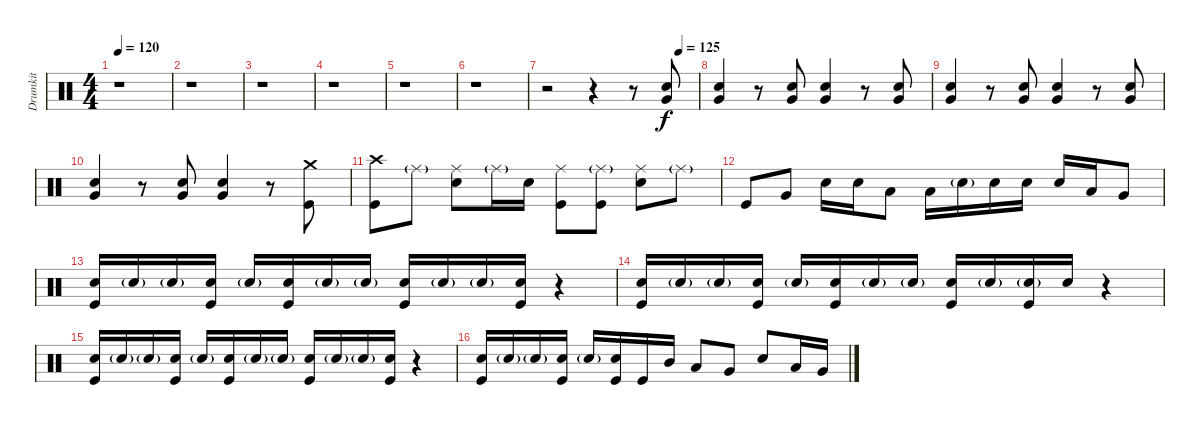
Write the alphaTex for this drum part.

\track ("Drumkit" "Drumkit") {instrument percussion}
\staff {score}
\articulation defaults
\ts (4 4)
\tempo 120
\clef neutral
\ks c
r.1{dy f} |
r.1 |
r.1 |
r.1 |
r.1 |
r.1 |
\tempo (125 0.875)
r.2 r.4 r.8 ("Snare (hit) 2" "Very Low Tom (hit)").8 |
("Very Low Tom (hit)" "Snare (hit) 2").4 r.8 ("Snare (hit) 2" "Very Low Tom (hit)").8 ("Very Low Tom (hit)" "Snare (hit) 2").4 r.8 ("Snare (hit) 2" "Very Low Tom (hit)").8 |
("Very Low Tom (hit)" "Snare (hit) 2").4 r.8 ("Snare (hit) 2" "Very Low Tom (hit)").8 ("Very Low Tom (hit)" "Snare (hit) 2").4 r.8 ("Snare (hit) 2" "Very Low Tom (hit)").8 |
("Very Low Tom (hit)" "Snare (hit) 2").4 r.8 ("Snare (hit) 2" "Very Low Tom (hit)").8 ("Very Low Tom (hit)" "Snare (hit) 2").4 r.8 ("Kick (hit)" "Crash medium (hit)").8 |
("Crash high (hit)" "Kick (hit)").8 "Ride (middle)"{g}.8 ("Ride (middle)" "Snare (hit) 2").8 "Ride (middle)"{g}.16 "Snare (hit) 2".16 ("Ride (middle)" "Kick (hit)").8 ("Ride (middle)"{g} "Kick (hit)").8 ("Ride (middle)" "Snare (hit) 2").8 "Ride (middle)"{g}.8 |
"Kick (hit)".8 "Very Low Tom (hit)".8 "Snare (hit) 2".16 "Snare (hit) 2".16 "Low Tom (hit)".8 "Low Tom (hit)".16 "Snare (hit) 2"{g}.16 "Snare (hit) 2".16 "Snare (hit) 2".16 "Snare (hit) 2".16 "Low Tom (hit)".16 "Very Low Tom (hit)".8 |
("Snare (hit) 2" "Kick (hit)").16 "Snare (hit) 2"{g}.16 "Snare (hit) 2"{g}.16 ("Snare (hit) 2" "Kick (hit)").16 "Snare (hit) 2"{g}.16 ("Snare (hit) 2" "Kick (hit)").16 "Snare (hit) 2"{g}.16 "Snare (hit) 2"{g}.16 ("Snare (hit) 2" "Kick (hit)").16 "Snare (hit) 2"{g}.16 "Snare (hit) 2"{g}.16 ("Snare (hit) 2" "Kick (hit)").16 r.4 |
("Snare (hit) 2" "Kick (hit)").16 "Snare (hit) 2"{g}.16 "Snare (hit) 2"{g}.16 ("Snare (hit) 2" "Kick (hit)").16 "Snare (hit) 2"{g}.16 ("Snare (hit) 2" "Kick (hit)").16 "Snare (hit) 2"{g}.16 "Snare (hit) 2"{g}.16 ("Snare (hit) 2" "Kick (hit)").16 "Snare (hit) 2"{g}.16 ("Snare (hit) 2"{g} "Kick (hit)").16 "Snare (hit) 2".16 r.4 |
("Snare (hit) 2" "Kick (hit)").16 "Snare (hit) 2"{g}.16 "Snare (hit) 2"{g}.16 ("Snare (hit) 2" "Kick (hit)").16 "Snare (hit) 2"{g}.16 ("Snare (hit) 2" "Kick (hit)").16 "Snare (hit) 2"{g}.16 "Snare (hit) 2"{g}.16 ("Snare (hit) 2" "Kick (hit)").16 "Snare (hit) 2"{g}.16 "Snare (hit) 2"{g}.16 ("Snare (hit) 2" "Kick (hit)").16 r.4 |
("Snare (hit) 2" "Kick (hit)").16 "Snare (hit) 2"{g}.16 "Snare (hit) 2"{g}.16 ("Snare (hit) 2" "Kick (hit)").16 "Snare (hit) 2"{g}.16 ("Snare (hit) 2" "Kick (hit)").16 "Kick (hit)".16 "Mid Tom (hit)".16 "Low Tom (hit)".8 "Very Low Tom (hit)".8 "Snare (hit) 2".8 "Low Tom (hit)".16 "Very Low Tom (hit)".16
